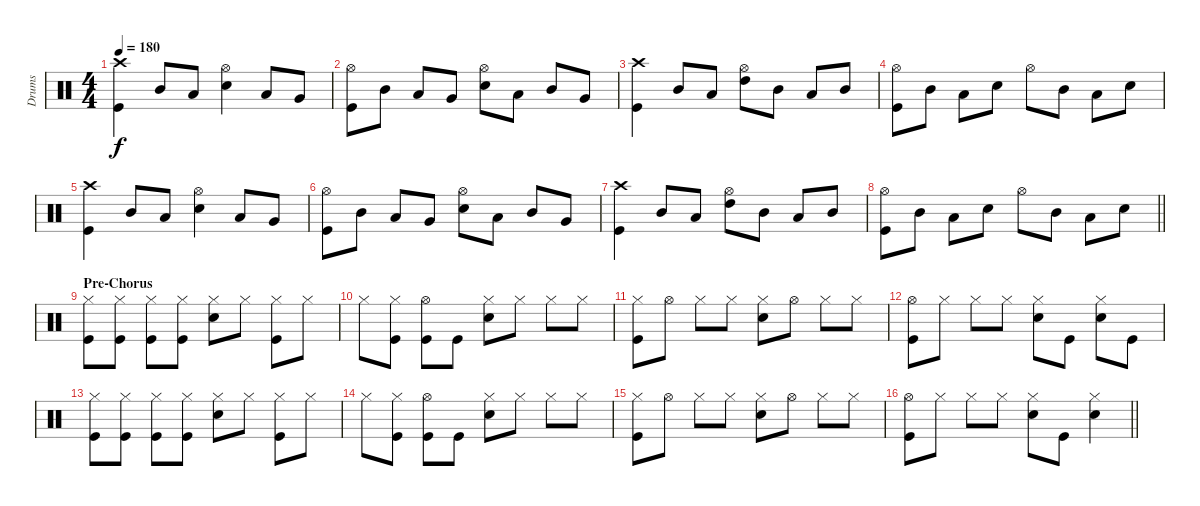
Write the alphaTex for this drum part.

\track ("Drums" "Drums") {instrument percussion}
\staff {score}
\articulation defaults
\ts (4 4)
\tempo 180
\clef neutral
\ks c
("Crash high (hit)" "Kick (hit)").4{dy f} "Mid Tom (hit)".8 "Low Tom (hit)".8 ("Hi-Hat (open)" "Snare (hit) 2").4 "Low Tom (hit)".8 "Very Low Tom (hit)".8 |
("Hi-Hat (open)" "Kick (hit)").8 "Mid Tom (hit)".8 "Low Tom (hit)".8 "Very Low Tom (hit)".8 ("Hi-Hat (open)" "Snare (hit) 2").8 "Low Tom (hit)".8 "Mid Tom (hit)".8 "Very Low Tom (hit)".8 |
("Crash high (hit)" "Kick (hit)").4 "Mid Tom (hit)".8 "Low Tom (hit)".8 ("Hi-Hat (open)" "High Tom (hit)").8 "Mid Tom (hit)".8 "Low Tom (hit)".8 "Mid Tom (hit)".8 |
("Hi-Hat (open)" "Kick (hit)").8 "Mid Tom (hit)".8 "Low Tom (hit)".8 "Snare (hit) 2".8 "Hi-Hat (open)".8 "Mid Tom (hit)".8 "Low Tom (hit)".8 "Snare (hit) 2".8 |
("Crash high (hit)" "Kick (hit)").4 "Mid Tom (hit)".8 "Low Tom (hit)".8 ("Hi-Hat (open)" "Snare (hit) 2").4 "Low Tom (hit)".8 "Very Low Tom (hit)".8 |
("Hi-Hat (open)" "Kick (hit)").8 "Mid Tom (hit)".8 "Low Tom (hit)".8 "Very Low Tom (hit)".8 ("Hi-Hat (open)" "Snare (hit) 2").8 "Low Tom (hit)".8 "Mid Tom (hit)".8 "Very Low Tom (hit)".8 |
("Crash high (hit)" "Kick (hit)").4 "Mid Tom (hit)".8 "Low Tom (hit)".8 ("Hi-Hat (open)" "High Tom (hit)").8 "Mid Tom (hit)".8 "Low Tom (hit)".8 "Mid Tom (hit)".8 |
\barLineRight lightlight
("Hi-Hat (open)" "Kick (hit)").8 "Mid Tom (hit)".8 "Low Tom (hit)".8 "Snare (hit) 2".8 "Hi-Hat (open)".8 "Mid Tom (hit)".8 "Low Tom (hit)".8 "Snare (hit) 2".8 |
\section ("" "Pre-Chorus")
("Hi-Hat (closed)" "Kick (hit)").8 ("Hi-Hat (closed)" "Kick (hit)").8 ("Hi-Hat (closed)" "Kick (hit)").8 ("Hi-Hat (closed)" "Kick (hit)").8 ("Hi-Hat (closed)" "Snare (hit) 2").8 "Hi-Hat (closed)".8 ("Hi-Hat (closed)" "Kick (hit)").8 "Hi-Hat (closed)".8 |
"Hi-Hat (closed)".8 ("Hi-Hat (closed)" "Kick (hit)").8 ("Hi-Hat (open)" "Kick (hit)").8 "Kick (hit)".8 ("Hi-Hat (closed)" "Snare (hit) 2").8 "Hi-Hat (closed)".8 "Hi-Hat (closed)".8 "Hi-Hat (closed)".8 |
("Hi-Hat (closed)" "Kick (hit)").8 "Hi-Hat (open)".8 "Hi-Hat (closed)".8 "Hi-Hat (closed)".8 ("Hi-Hat (closed)" "Snare (hit) 2").8 "Hi-Hat (open)".8 "Hi-Hat (closed)".8 "Hi-Hat (closed)".8 |
("Hi-Hat (open)" "Kick (hit)").8 "Hi-Hat (closed)".8 "Hi-Hat (closed)".8 "Hi-Hat (closed)".8 ("Hi-Hat (closed)" "Snare (hit) 2").8 "Kick (hit)".8 ("Snare (hit) 2" "Hi-Hat (closed)").8 "Kick (hit)".8 |
("Hi-Hat (closed)" "Kick (hit)").8 ("Hi-Hat (closed)" "Kick (hit)").8 ("Hi-Hat (closed)" "Kick (hit)").8 ("Hi-Hat (closed)" "Kick (hit)").8 ("Hi-Hat (closed)" "Snare (hit) 2").8 "Hi-Hat (closed)".8 ("Hi-Hat (closed)" "Kick (hit)").8 "Hi-Hat (closed)".8 |
"Hi-Hat (closed)".8 ("Hi-Hat (closed)" "Kick (hit)").8 ("Hi-Hat (open)" "Kick (hit)").8 "Kick (hit)".8 ("Hi-Hat (closed)" "Snare (hit) 2").8 "Hi-Hat (closed)".8 "Hi-Hat (closed)".8 "Hi-Hat (closed)".8 |
("Hi-Hat (closed)" "Kick (hit)").8 "Hi-Hat (open)".8 "Hi-Hat (closed)".8 "Hi-Hat (closed)".8 ("Hi-Hat (closed)" "Snare (hit) 2").8 "Hi-Hat (open)".8 "Hi-Hat (closed)".8 "Hi-Hat (closed)".8 |
\barLineRight lightlight
("Hi-Hat (open)" "Kick (hit)").8 "Hi-Hat (closed)".8 "Hi-Hat (closed)".8 "Hi-Hat (closed)".8 ("Hi-Hat (closed)" "Snare (hit) 2").8 "Kick (hit)".8 ("Snare (hit) 2" "Hi-Hat (closed)").4
